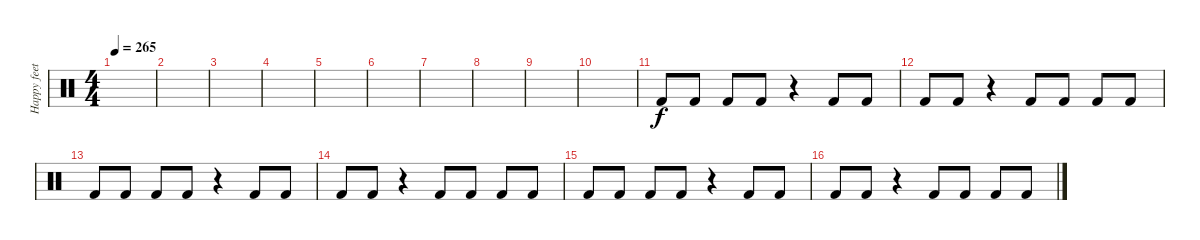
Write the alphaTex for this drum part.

\track ("Happy feet" "Happy feet") {instrument percussion}
\staff {score}
\articulation defaults
\ts (4 4)
\tempo 265
\clef neutral
\ks c
|
|
|
|
|
|
|
|
|
|
"Kick (hit) 2".8 "Kick (hit) 2".8 "Kick (hit) 2".8 "Kick (hit) 2".8 r.4 "Kick (hit) 2".8 "Kick (hit) 2".8 |
"Kick (hit) 2".8 "Kick (hit) 2".8 r.4 "Kick (hit) 2".8 "Kick (hit) 2".8 "Kick (hit) 2".8 "Kick (hit) 2".8 |
"Kick (hit) 2".8 "Kick (hit) 2".8 "Kick (hit) 2".8 "Kick (hit) 2".8 r.4 "Kick (hit) 2".8 "Kick (hit) 2".8 |
"Kick (hit) 2".8 "Kick (hit) 2".8 r.4 "Kick (hit) 2".8 "Kick (hit) 2".8 "Kick (hit) 2".8 "Kick (hit) 2".8 |
"Kick (hit) 2".8 "Kick (hit) 2".8 "Kick (hit) 2".8 "Kick (hit) 2".8 r.4 "Kick (hit) 2".8 "Kick (hit) 2".8 |
"Kick (hit) 2".8 "Kick (hit) 2".8 r.4 "Kick (hit) 2".8 "Kick (hit) 2".8 "Kick (hit) 2".8 "Kick (hit) 2".8
